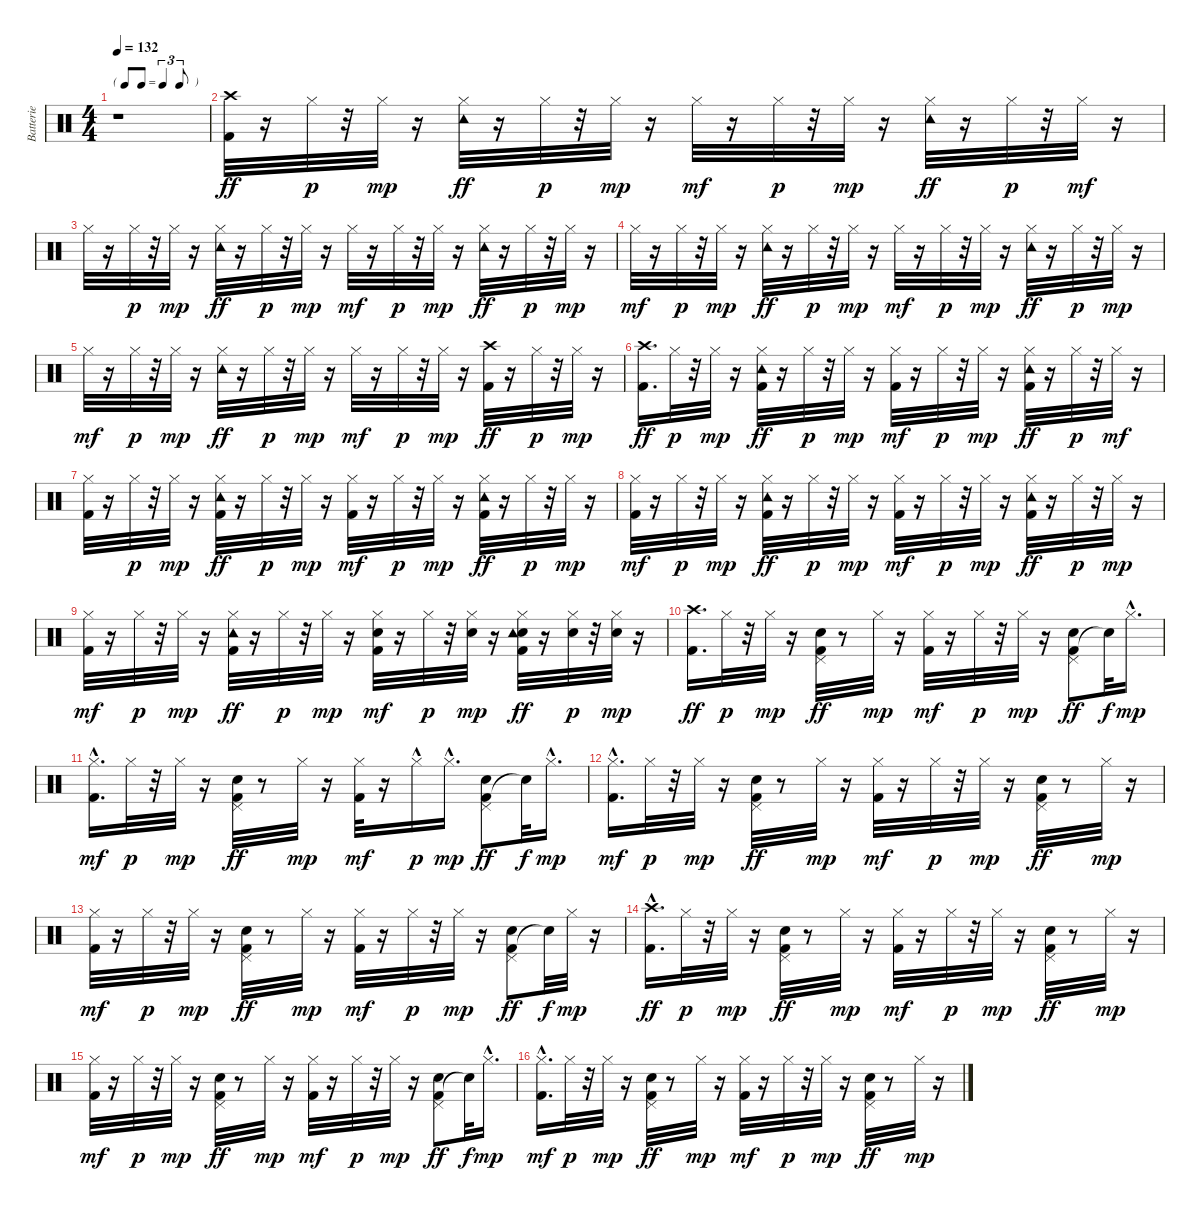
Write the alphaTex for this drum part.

\track ("Batterie" "Batterie") {instrument percussion}
\staff {score}
\articulation defaults
\ts (4 4)
\tf triplet8th
\tempo 132
\clef neutral
\ks c
r.1{dy ff} |
("Kick (hit) 2" "Crash high (hit)").32 r.16 "Hi-Hat (closed)".32{dy p} r.32 "Hi-Hat (closed)".32{dy mp} r.16 ("Hi-Hat (closed)" "Tambourine (hit)").32{dy ff} r.16 "Hi-Hat (closed)".32{dy p} r.32 "Hi-Hat (closed)".32{dy mp} r.16 "Hi-Hat (closed)".32{dy mf} r.16 "Hi-Hat (closed)".32{dy p} r.32 "Hi-Hat (closed)".32{dy mp} r.16 ("Hi-Hat (closed)" "Tambourine (hit)").32{dy ff} r.16 "Hi-Hat (closed)".32{dy p} r.32 "Hi-Hat (closed)".32{dy mf} r.16 |
"Hi-Hat (closed)".32 r.16 "Hi-Hat (closed)".32{dy p} r.32 "Hi-Hat (closed)".32{dy mp} r.16 ("Hi-Hat (closed)" "Tambourine (hit)").32{dy ff} r.16 "Hi-Hat (closed)".32{dy p} r.32 "Hi-Hat (closed)".32{dy mp} r.16 "Hi-Hat (closed)".32{dy mf} r.16 "Hi-Hat (closed)".32{dy p} r.32 "Hi-Hat (closed)".32{dy mp} r.16 ("Hi-Hat (closed)" "Tambourine (hit)").32{dy ff} r.16 "Hi-Hat (closed)".32{dy p} r.32 "Hi-Hat (closed)".32{dy mp} r.16 |
"Hi-Hat (closed)".32{dy mf} r.16 "Hi-Hat (closed)".32{dy p} r.32 "Hi-Hat (closed)".32{dy mp} r.16 ("Hi-Hat (closed)" "Tambourine (hit)").32{dy ff} r.16 "Hi-Hat (closed)".32{dy p} r.32 "Hi-Hat (closed)".32{dy mp} r.16 "Hi-Hat (closed)".32{dy mf} r.16 "Hi-Hat (closed)".32{dy p} r.32 "Hi-Hat (closed)".32{dy mp} r.16 ("Hi-Hat (closed)" "Tambourine (hit)").32{dy ff} r.16 "Hi-Hat (closed)".32{dy p} r.32 "Hi-Hat (closed)".32{dy mp} r.16 |
"Hi-Hat (closed)".32{dy mf} r.16 "Hi-Hat (closed)".32{dy p} r.32 "Hi-Hat (closed)".32{dy mp} r.16 ("Hi-Hat (closed)" "Tambourine (hit)").32{dy ff} r.16 "Hi-Hat (closed)".32{dy p} r.32 "Hi-Hat (closed)".32{dy mp} r.16 "Hi-Hat (closed)".32{dy mf} r.16 "Hi-Hat (closed)".32{dy p} r.32 "Hi-Hat (closed)".32{dy mp} r.16 ("Kick (hit) 2" "Crash high (hit)").32{dy ff} r.16 "Hi-Hat (closed)".32{dy p} r.32 "Hi-Hat (closed)".32{dy mp} r.16 |
("Kick (hit) 2" "Crash high (hit)").16{d dy ff} "Hi-Hat (closed)".32{dy p} r.32 "Hi-Hat (closed)".32{dy mp} r.16 ("Kick (hit) 2" "Hi-Hat (closed)" "Tambourine (hit)").32{dy ff} r.16 "Hi-Hat (closed)".32{dy p} r.32 "Hi-Hat (closed)".32{dy mp} r.16 ("Kick (hit) 2" "Hi-Hat (closed)").32{dy mf} r.16 "Hi-Hat (closed)".32{dy p} r.32 "Hi-Hat (closed)".32{dy mp} r.16 ("Kick (hit) 2" "Hi-Hat (closed)" "Tambourine (hit)").32{dy ff} r.16 "Hi-Hat (closed)".32{dy p} r.32 "Hi-Hat (closed)".32{dy mf} r.16 |
("Kick (hit) 2" "Hi-Hat (closed)").32 r.16 "Hi-Hat (closed)".32{dy p} r.32 "Hi-Hat (closed)".32{dy mp} r.16 ("Kick (hit) 2" "Hi-Hat (closed)" "Tambourine (hit)").32{dy ff} r.16 "Hi-Hat (closed)".32{dy p} r.32 "Hi-Hat (closed)".32{dy mp} r.16 ("Kick (hit) 2" "Hi-Hat (closed)").32{dy mf} r.16 "Hi-Hat (closed)".32{dy p} r.32 "Hi-Hat (closed)".32{dy mp} r.16 ("Kick (hit) 2" "Hi-Hat (closed)" "Tambourine (hit)").32{dy ff} r.16 "Hi-Hat (closed)".32{dy p} r.32 "Hi-Hat (closed)".32{dy mp} r.16 |
("Kick (hit) 2" "Hi-Hat (closed)").32{dy mf} r.16 "Hi-Hat (closed)".32{dy p} r.32 "Hi-Hat (closed)".32{dy mp} r.16 ("Kick (hit) 2" "Hi-Hat (closed)" "Tambourine (hit)").32{dy ff} r.16 "Hi-Hat (closed)".32{dy p} r.32 "Hi-Hat (closed)".32{dy mp} r.16 ("Kick (hit) 2" "Hi-Hat (closed)").32{dy mf} r.16 "Hi-Hat (closed)".32{dy p} r.32 "Hi-Hat (closed)".32{dy mp} r.16 ("Kick (hit) 2" "Hi-Hat (closed)" "Tambourine (hit)").32{dy ff} r.16 "Hi-Hat (closed)".32{dy p} r.32 "Hi-Hat (closed)".32{dy mp} r.16 |
("Kick (hit) 2" "Hi-Hat (closed)").32{dy mf} r.16 "Hi-Hat (closed)".32{dy p} r.32 "Hi-Hat (closed)".32{dy mp} r.16 ("Kick (hit) 2" "Hi-Hat (closed)" "Tambourine (hit)").32{dy ff} r.16 "Hi-Hat (closed)".32{dy p} r.32 "Hi-Hat (closed)".32{dy mp} r.16 ("Kick (hit) 2" "Snare (hit) 2" "Hi-Hat (closed)").32{dy mf} r.16 "Hi-Hat (closed)".32{dy p} r.32 ("Snare (hit) 2" "Hi-Hat (closed)").32{dy mp} r.16 ("Kick (hit) 2" "Snare (hit) 2" "Hi-Hat (closed)" "Tambourine (hit)").32{dy ff} r.16 ("Snare (hit) 2" "Hi-Hat (closed)").32{dy p} r.32 ("Snare (hit) 2" "Hi-Hat (closed)").32{dy mp} r.16 |
("Kick (hit) 2" "Crash high (hit)").16{d dy ff} "Hi-Hat (closed)".32{dy p} r.32 "Hi-Hat (closed)".32{dy mp} r.16 ("Kick (hit) 2" "Snare (hit) 2" "Pedal Hi-Hat (hit)").32{dy ff} r.8 "Hi-Hat (closed)".32{dy mp} r.16 ("Kick (hit) 2" "Hi-Hat (closed)").32{dy mf} r.16 "Hi-Hat (closed)".32{dy p} r.32 "Hi-Hat (closed)".32{dy mp} r.16 ("Kick (hit) 2" "Snare (hit) 2" "Pedal Hi-Hat (hit)").8{dy ff} "Snare (hit)"{t}.32{dy f} "Hi-Hat (closed)"{hac}.16{d dy mp} |
("Kick (hit) 2"{hac} "Hi-Hat (closed)"{hac}).16{d dy mf} "Hi-Hat (closed)".32{dy p} r.32 "Hi-Hat (closed)".32{dy mp} r.16 ("Kick (hit) 2" "Snare (hit) 2" "Pedal Hi-Hat (hit)").32{dy ff} r.8 "Hi-Hat (closed)".32{dy mp} r.16 ("Kick (hit) 2" "Hi-Hat (closed)").32{dy mf} r.16 "Hi-Hat (closed)"{hac}.16{dy p} "Hi-Hat (closed)"{hac}.16{d dy mp} ("Kick (hit) 2" "Snare (hit) 2" "Pedal Hi-Hat (hit)").8{dy ff} "Snare (hit)"{t}.32{dy f} "Hi-Hat (closed)"{hac}.16{d dy mp} |
("Kick (hit) 2"{hac} "Hi-Hat (closed)"{hac}).16{d dy mf} "Hi-Hat (closed)".32{dy p} r.32 "Hi-Hat (closed)".32{dy mp} r.16 ("Kick (hit) 2" "Snare (hit) 2" "Pedal Hi-Hat (hit)").32{dy ff} r.8 "Hi-Hat (closed)".32{dy mp} r.16 ("Kick (hit) 2" "Hi-Hat (closed)").32{dy mf} r.16 "Hi-Hat (closed)".32{dy p} r.32 "Hi-Hat (closed)".32{dy mp} r.16 ("Kick (hit) 2" "Snare (hit) 2" "Pedal Hi-Hat (hit)").32{dy ff} r.8 "Hi-Hat (closed)".32{dy mp} r.16 |
("Kick (hit) 2" "Hi-Hat (closed)").32{dy mf} r.16 "Hi-Hat (closed)".32{dy p} r.32 "Hi-Hat (closed)".32{dy mp} r.16 ("Kick (hit) 2" "Snare (hit) 2" "Pedal Hi-Hat (hit)").32{dy ff} r.8 "Hi-Hat (closed)".32{dy mp} r.16 ("Kick (hit) 2" "Hi-Hat (closed)").32{dy mf} r.16 "Hi-Hat (closed)".32{dy p} r.32 "Hi-Hat (closed)".32{dy mp} r.16 ("Kick (hit) 2" "Snare (hit) 2" "Pedal Hi-Hat (hit)").8{dy ff} "Snare (hit)"{t}.32{dy f} "Hi-Hat (closed)".32{dy mp} r.16 |
("Kick (hit) 2"{hac} "Crash high (hit)"{hac}).16{d dy ff} "Hi-Hat (closed)".32{dy p} r.32 "Hi-Hat (closed)".32{dy mp} r.16 ("Kick (hit) 2" "Snare (hit) 2" "Pedal Hi-Hat (hit)").32{dy ff} r.8 "Hi-Hat (closed)".32{dy mp} r.16 ("Kick (hit) 2" "Hi-Hat (closed)").32{dy mf} r.16 "Hi-Hat (closed)".32{dy p} r.32 "Hi-Hat (closed)".32{dy mp} r.16 ("Kick (hit) 2" "Snare (hit) 2" "Pedal Hi-Hat (hit)").32{dy ff} r.8 "Hi-Hat (closed)".32{dy mp} r.16 |
("Kick (hit) 2" "Hi-Hat (closed)").32{dy mf} r.16 "Hi-Hat (closed)".32{dy p} r.32 "Hi-Hat (closed)".32{dy mp} r.16 ("Kick (hit) 2" "Snare (hit) 2" "Pedal Hi-Hat (hit)").32{dy ff} r.8 "Hi-Hat (closed)".32{dy mp} r.16 ("Kick (hit) 2" "Hi-Hat (closed)").32{dy mf} r.16 "Hi-Hat (closed)".32{dy p} r.32 "Hi-Hat (closed)".32{dy mp} r.16 ("Kick (hit) 2" "Snare (hit) 2" "Pedal Hi-Hat (hit)").8{dy ff} "Snare (hit)"{t}.32{dy f} "Hi-Hat (closed)"{hac}.16{d dy mp} |
("Kick (hit) 2"{hac} "Hi-Hat (closed)"{hac}).16{d dy mf} "Hi-Hat (closed)".32{dy p} r.32 "Hi-Hat (closed)".32{dy mp} r.16 ("Kick (hit) 2" "Snare (hit) 2" "Pedal Hi-Hat (hit)").32{dy ff} r.8 "Hi-Hat (closed)".32{dy mp} r.16 ("Kick (hit) 2" "Hi-Hat (closed)").32{dy mf} r.16 "Hi-Hat (closed)".32{dy p} r.32 "Hi-Hat (closed)".32{dy mp} r.16 ("Kick (hit) 2" "Snare (hit) 2" "Pedal Hi-Hat (hit)").32{dy ff} r.8 "Hi-Hat (closed)".32{dy mp} r.16
